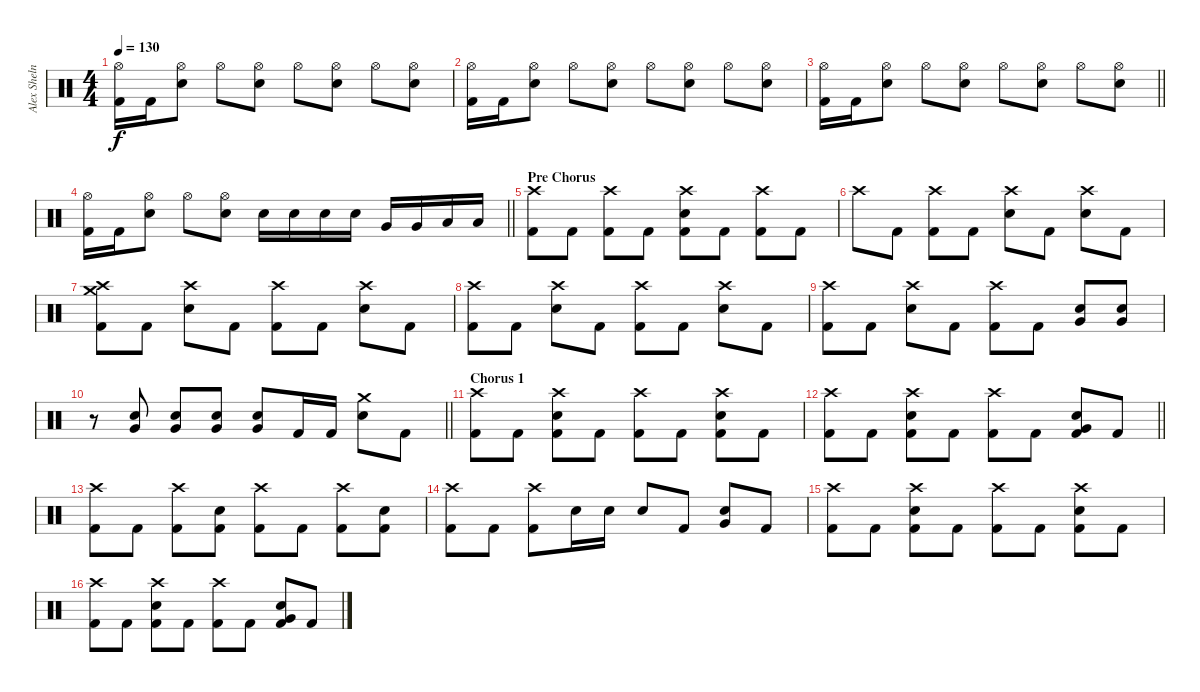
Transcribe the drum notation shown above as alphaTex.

\track ("Alex Shelnutt [Drums]" "Alex Sheln") {instrument percussion}
\staff {score}
\articulation defaults
\ts (4 4)
\tempo 130
\clef neutral
\ks c
("Hi-Hat (open)" "Kick (hit) 2").16{dy f} "Kick (hit) 2".16 ("Hi-Hat (open)" "Electric Snare (hit)").8 "Hi-Hat (open)".8 ("Hi-Hat (open)" "Electric Snare (hit)").8 "Hi-Hat (open)".8 ("Hi-Hat (open)" "Electric Snare (hit)").8 "Hi-Hat (open)".8 ("Hi-Hat (open)" "Electric Snare (hit)").8 |
("Hi-Hat (open)" "Kick (hit) 2").16 "Kick (hit) 2".16 ("Hi-Hat (open)" "Electric Snare (hit)").8 "Hi-Hat (open)".8 ("Hi-Hat (open)" "Electric Snare (hit)").8 "Hi-Hat (open)".8 ("Hi-Hat (open)" "Electric Snare (hit)").8 "Hi-Hat (open)".8 ("Hi-Hat (open)" "Electric Snare (hit)").8 |
\barLineRight lightlight
("Hi-Hat (open)" "Kick (hit) 2").16 "Kick (hit) 2".16 ("Hi-Hat (open)" "Electric Snare (hit)").8 "Hi-Hat (open)".8 ("Hi-Hat (open)" "Electric Snare (hit)").8 "Hi-Hat (open)".8 ("Hi-Hat (open)" "Electric Snare (hit)").8 "Hi-Hat (open)".8 ("Hi-Hat (open)" "Electric Snare (hit)").8 |
\barLineRight lightlight
("Hi-Hat (open)" "Kick (hit) 2").16 "Kick (hit) 2".16 ("Hi-Hat (open)" "Electric Snare (hit)").8 "Hi-Hat (open)".8 ("Hi-Hat (open)" "Electric Snare (hit)").8 "Electric Snare (hit)".16 "Electric Snare (hit)".16 "Electric Snare (hit)".16 "Electric Snare (hit)".16 "Very Low Tom (hit)".16 "Very Low Tom (hit)".16 "Low Floor Tom (hit)".16 "Low Floor Tom (hit)".16 |
\section ("" "Pre Chorus")
("Crash high (hit)" "Kick (hit) 2").8 "Kick (hit) 2".8 ("Crash high (hit)" "Kick (hit) 2").8 "Kick (hit) 2".8 ("Crash high (hit)" "Electric Snare (hit)" "Kick (hit) 2").8 "Kick (hit) 2".8 ("Crash high (hit)" "Kick (hit) 2").8 "Kick (hit) 2".8 |
"Crash high (hit)".8 "Kick (hit) 2".8 ("Crash high (hit)" "Kick (hit) 2").8 "Kick (hit) 2".8 ("Crash high (hit)" "Electric Snare (hit)").8 "Kick (hit) 2".8 ("Crash high (hit)" "Electric Snare (hit)").8 "Kick (hit) 2".8 |
("Crash high (hit)" "Crash medium (hit)" "Kick (hit) 2").8 "Kick (hit) 2".8 ("Crash high (hit)" "Electric Snare (hit)").8 "Kick (hit) 2".8 ("Crash high (hit)" "Kick (hit) 2").8 "Kick (hit) 2".8 ("Crash high (hit)" "Electric Snare (hit)").8 "Kick (hit) 2".8 |
("Crash high (hit)" "Kick (hit) 2").8 "Kick (hit) 2".8 ("Crash high (hit)" "Electric Snare (hit)").8 "Kick (hit) 2".8 ("Crash high (hit)" "Kick (hit) 2").8 "Kick (hit) 2".8 ("Crash high (hit)" "Electric Snare (hit)").8 "Kick (hit) 2".8 |
("Crash high (hit)" "Kick (hit) 2").8 "Kick (hit) 2".8 ("Crash high (hit)" "Electric Snare (hit)").8 "Kick (hit) 2".8 ("Crash high (hit)" "Kick (hit) 2").8 "Kick (hit) 2".8 ("Very Low Tom (hit)" "Electric Snare (hit)").8 ("Very Low Tom (hit)" "Electric Snare (hit)").8 |
\barLineRight lightlight
r.8 ("Very Low Tom (hit)" "Electric Snare (hit)").8 ("Very Low Tom (hit)" "Electric Snare (hit)").8 ("Very Low Tom (hit)" "Electric Snare (hit)").8 ("Very Low Tom (hit)" "Electric Snare (hit)").8 "Kick (hit) 2".16 "Kick (hit) 2".16 ("Crash medium (hit)" "Electric Snare (hit)").8 "Kick (hit) 2".8 |
\section ("" "Chorus 1")
("Crash high (hit)" "Kick (hit) 2").8 "Kick (hit) 2".8 ("Crash high (hit)" "Electric Snare (hit)" "Kick (hit) 2").8 "Kick (hit) 2".8 ("Crash high (hit)" "Kick (hit) 2").8 "Kick (hit) 2".8 ("Crash high (hit)" "Electric Snare (hit)" "Kick (hit) 2").8 "Kick (hit) 2".8 |
\barLineRight lightlight
("Crash high (hit)" "Kick (hit) 2").8 "Kick (hit) 2".8 ("Crash high (hit)" "Electric Snare (hit)" "Kick (hit) 2").8 "Kick (hit) 2".8 ("Crash high (hit)" "Kick (hit) 2").8 "Kick (hit) 2".8 ("Very Low Tom (hit)" "Electric Snare (hit)" "Kick (hit) 2").8 "Kick (hit) 2".8 |
("Crash high (hit)" "Kick (hit) 2").8 "Kick (hit) 2".8 ("Crash high (hit)" "Kick (hit) 2").8 ("Electric Snare (hit)" "Kick (hit) 2").8 ("Crash high (hit)" "Kick (hit) 2").8 "Kick (hit) 2".8 ("Crash high (hit)" "Kick (hit) 2").8 ("Electric Snare (hit)" "Kick (hit) 2").8 |
("Crash high (hit)" "Kick (hit) 2").8 "Kick (hit) 2".8 ("Crash high (hit)" "Kick (hit) 2").8 "Electric Snare (hit)".16 "Electric Snare (hit)".16 "Electric Snare (hit)".8 "Kick (hit) 2".8 ("Very Low Tom (hit)" "Electric Snare (hit)").8 "Kick (hit) 2".8 |
("Crash high (hit)" "Kick (hit) 2").8 "Kick (hit) 2".8 ("Crash high (hit)" "Electric Snare (hit)" "Kick (hit) 2").8 "Kick (hit) 2".8 ("Crash high (hit)" "Kick (hit) 2").8 "Kick (hit) 2".8 ("Crash high (hit)" "Electric Snare (hit)" "Kick (hit) 2").8 "Kick (hit) 2".8 |
("Crash high (hit)" "Kick (hit) 2").8 "Kick (hit) 2".8 ("Crash high (hit)" "Electric Snare (hit)" "Kick (hit) 2").8 "Kick (hit) 2".8 ("Crash high (hit)" "Kick (hit) 2").8 "Kick (hit) 2".8 ("Very Low Tom (hit)" "Electric Snare (hit)" "Kick (hit) 2").8 "Kick (hit) 2".8
